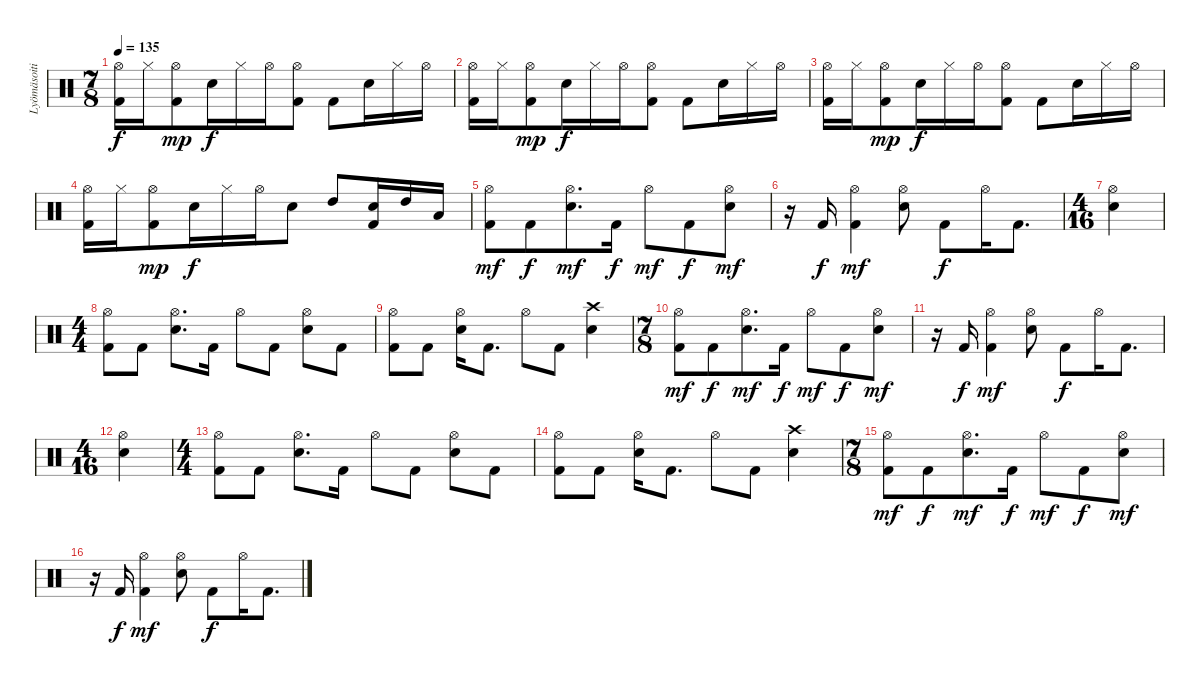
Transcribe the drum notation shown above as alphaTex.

\track ("Lyömäsoitin" "Lyömäsoiti") {instrument percussion}
\staff {score}
\articulation defaults
\ts (7 8)
\tempo 135
\clef neutral
\ks c
("Hi-Hat (open)" "Kick (hit) 2").16{dy f} "Hi-Hat (closed)".16 ("Hi-Hat (open)" "Kick (hit) 2").8{dy mp} "Electric Snare (hit)".16{dy f} "Hi-Hat (closed)".16 "Hi-Hat (open)".16 ("Hi-Hat (open)" "Kick (hit) 2").8 "Kick (hit) 2".8 "Electric Snare (hit)".16 "Hi-Hat (closed)".16 "Hi-Hat (open)".16 |
("Hi-Hat (open)" "Kick (hit) 2").16 "Hi-Hat (closed)".16 ("Hi-Hat (open)" "Kick (hit) 2").8{dy mp} "Electric Snare (hit)".16{dy f} "Hi-Hat (closed)".16 "Hi-Hat (open)".16 ("Hi-Hat (open)" "Kick (hit) 2").8 "Kick (hit) 2".8 "Electric Snare (hit)".16 "Hi-Hat (closed)".16 "Hi-Hat (open)".16 |
("Hi-Hat (open)" "Kick (hit) 2").16 "Hi-Hat (closed)".16 ("Hi-Hat (open)" "Kick (hit) 2").8{dy mp} "Electric Snare (hit)".16{dy f} "Hi-Hat (closed)".16 "Hi-Hat (open)".16 ("Hi-Hat (open)" "Kick (hit) 2").8 "Kick (hit) 2".8 "Electric Snare (hit)".16 "Hi-Hat (closed)".16 "Hi-Hat (open)".16 |
("Hi-Hat (open)" "Kick (hit) 2").16 "Hi-Hat (closed)".16 ("Hi-Hat (open)" "Kick (hit) 2").8{dy mp} "Electric Snare (hit)".16{dy f} "Hi-Hat (closed)".16 "Hi-Hat (open)".16 "Electric Snare (hit)".8 "High Tom (hit)".8 ("Electric Snare (hit)" "Kick (hit) 2").16 "High Tom (hit)".16 "Low Tom (hit)".16 |
("Hi-Hat (open)" "Kick (hit) 2").8{dy mf} "Kick (hit) 2".8{dy f} ("Hi-Hat (open)" "Electric Snare (hit)").8{d dy mf} "Kick (hit) 2".16{dy f} "Hi-Hat (open)".8{dy mf} "Kick (hit) 2".8{dy f} ("Hi-Hat (open)" "Electric Snare (hit)").8{dy mf} |
r.16 "Kick (hit) 2".16{dy f} ("Hi-Hat (open)" "Kick (hit) 2").4{dy mf} ("Hi-Hat (open)" "Electric Snare (hit)").8 "Kick (hit) 2".8{dy f} "Hi-Hat (open)".16 "Kick (hit) 2".8{d} |
\ts (4 16)
("Hi-Hat (open)" "Electric Snare (hit)").4 |
\ts (4 4)
("Hi-Hat (open)" "Kick (hit) 2").8 "Kick (hit) 2".8 ("Hi-Hat (open)" "Electric Snare (hit)").8{d} "Kick (hit) 2".16 "Hi-Hat (open)".8 "Kick (hit) 2".8 ("Hi-Hat (open)" "Electric Snare (hit)").8 "Kick (hit) 2".8 |
("Hi-Hat (open)" "Kick (hit) 2").8 "Kick (hit) 2".8 ("Hi-Hat (open)" "Electric Snare (hit)").16 "Kick (hit) 2".8{d} "Hi-Hat (open)".8 "Kick (hit) 2".8 ("Crash high (hit)" "Electric Snare (hit)").4 |
\ts (7 8)
("Hi-Hat (open)" "Kick (hit) 2").8{dy mf} "Kick (hit) 2".8{dy f} ("Hi-Hat (open)" "Electric Snare (hit)").8{d dy mf} "Kick (hit) 2".16{dy f} "Hi-Hat (open)".8{dy mf} "Kick (hit) 2".8{dy f} ("Hi-Hat (open)" "Electric Snare (hit)").8{dy mf} |
r.16 "Kick (hit) 2".16{dy f} ("Hi-Hat (open)" "Kick (hit) 2").4{dy mf} ("Hi-Hat (open)" "Electric Snare (hit)").8 "Kick (hit) 2".8{dy f} "Hi-Hat (open)".16 "Kick (hit) 2".8{d} |
\ts (4 16)
("Hi-Hat (open)" "Electric Snare (hit)").4 |
\ts (4 4)
("Hi-Hat (open)" "Kick (hit) 2").8 "Kick (hit) 2".8 ("Hi-Hat (open)" "Electric Snare (hit)").8{d} "Kick (hit) 2".16 "Hi-Hat (open)".8 "Kick (hit) 2".8 ("Hi-Hat (open)" "Electric Snare (hit)").8 "Kick (hit) 2".8 |
("Hi-Hat (open)" "Kick (hit) 2").8 "Kick (hit) 2".8 ("Hi-Hat (open)" "Electric Snare (hit)").16 "Kick (hit) 2".8{d} "Hi-Hat (open)".8 "Kick (hit) 2".8 ("Crash high (hit)" "Electric Snare (hit)").4 |
\ts (7 8)
("Hi-Hat (open)" "Kick (hit) 2").8{dy mf} "Kick (hit) 2".8{dy f} ("Hi-Hat (open)" "Electric Snare (hit)").8{d dy mf} "Kick (hit) 2".16{dy f} "Hi-Hat (open)".8{dy mf} "Kick (hit) 2".8{dy f} ("Hi-Hat (open)" "Electric Snare (hit)").8{dy mf} |
r.16 "Kick (hit) 2".16{dy f} ("Hi-Hat (open)" "Kick (hit) 2").4{dy mf} ("Hi-Hat (open)" "Electric Snare (hit)").8 "Kick (hit) 2".8{dy f} "Hi-Hat (open)".16 "Kick (hit) 2".8{d}
